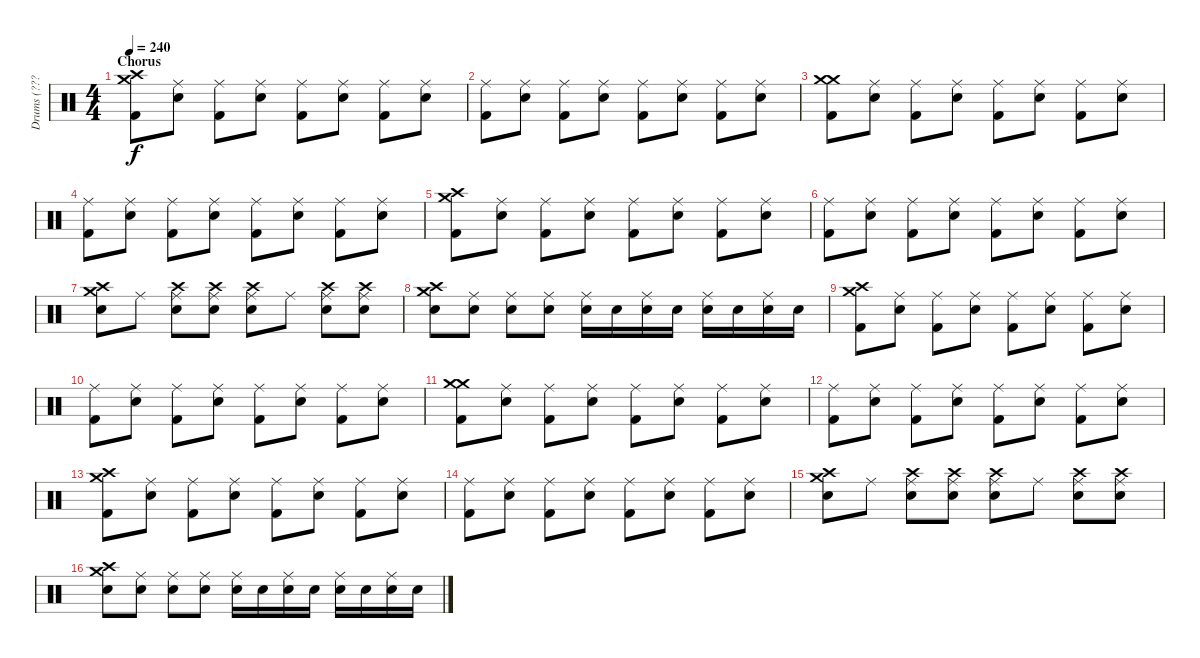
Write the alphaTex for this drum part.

\track ("Drums (????)" "Drums (???") {instrument percussion}
\staff {score}
\articulation defaults
\ts (4 4)
\section ("" "Chorus")
\tempo 240
\clef neutral
\ks c
("Crash medium (hit)" "Crash high (hit)" "Kick (hit) 2").8{dy f} ("Ride (middle)" "Snare (hit) 2").8 ("Ride (middle)" "Kick (hit) 2").8 ("Ride (middle)" "Snare (hit) 2").8 ("Ride (middle)" "Kick (hit) 2").8 ("Ride (middle)" "Snare (hit) 2").8 ("Ride (middle)" "Kick (hit) 2").8 ("Ride (middle)" "Snare (hit) 2").8 |
("Ride (middle)" "Kick (hit) 2").8 ("Ride (middle)" "Snare (hit) 2").8 ("Ride (middle)" "Kick (hit) 2").8 ("Ride (middle)" "Snare (hit) 2").8 ("Ride (middle)" "Kick (hit) 2").8 ("Ride (middle)" "Snare (hit) 2").8 ("Ride (middle)" "Kick (hit) 2").8 ("Ride (middle)" "Snare (hit) 2").8 |
("Crash medium (hit)" "Crash medium (hit)" "Kick (hit) 2").8 ("Ride (middle)" "Snare (hit) 2").8 ("Ride (middle)" "Kick (hit) 2").8 ("Ride (middle)" "Snare (hit) 2").8 ("Ride (middle)" "Kick (hit) 2").8 ("Ride (middle)" "Snare (hit) 2").8 ("Ride (middle)" "Kick (hit) 2").8 ("Ride (middle)" "Snare (hit) 2").8 |
("Ride (middle)" "Kick (hit) 2").8 ("Ride (middle)" "Snare (hit) 2").8 ("Ride (middle)" "Kick (hit) 2").8 ("Ride (middle)" "Snare (hit) 2").8 ("Ride (middle)" "Kick (hit) 2").8 ("Ride (middle)" "Snare (hit) 2").8 ("Ride (middle)" "Kick (hit) 2").8 ("Ride (middle)" "Snare (hit) 2").8 |
("Crash medium (hit)" "Crash high (hit)" "Kick (hit) 2").8 ("Ride (middle)" "Snare (hit) 2").8 ("Ride (middle)" "Kick (hit) 2").8 ("Ride (middle)" "Snare (hit) 2").8 ("Ride (middle)" "Kick (hit) 2").8 ("Ride (middle)" "Snare (hit) 2").8 ("Ride (middle)" "Kick (hit) 2").8 ("Ride (middle)" "Snare (hit) 2").8 |
("Ride (middle)" "Kick (hit) 2").8 ("Ride (middle)" "Snare (hit) 2").8 ("Ride (middle)" "Kick (hit) 2").8 ("Ride (middle)" "Snare (hit) 2").8 ("Ride (middle)" "Kick (hit) 2").8 ("Ride (middle)" "Snare (hit) 2").8 ("Ride (middle)" "Kick (hit) 2").8 ("Ride (middle)" "Snare (hit) 2").8 |
("Crash medium (hit)" "Crash high (hit)" "Snare (hit) 2").8 "Ride (middle)".8 ("Ride (middle)" "Crash high (hit)" "Snare (hit) 2").8 ("Ride (middle)" "Crash high (hit)" "Snare (hit) 2").8 ("Ride (middle)" "Crash high (hit)" "Snare (hit) 2").8 "Ride (middle)".8 ("Ride (middle)" "Crash high (hit)" "Snare (hit) 2").8 ("Ride (middle)" "Crash high (hit)" "Snare (hit) 2").8 |
("Crash medium (hit)" "Crash high (hit)" "Snare (hit) 2").8 ("Ride (middle)" "Snare (hit) 2").8 ("Ride (middle)" "Snare (hit) 2").8 ("Ride (middle)" "Snare (hit) 2").8 ("Ride (middle)" "Snare (hit) 2").16 "Snare (hit) 2".16 ("Ride (middle)" "Snare (hit) 2").16 "Snare (hit) 2".16 ("Ride (middle)" "Snare (hit) 2").16 "Snare (hit) 2".16 ("Ride (middle)" "Snare (hit) 2").16 "Snare (hit) 2".16 |
("Crash medium (hit)" "Crash high (hit)" "Kick (hit) 2").8 ("Ride (middle)" "Snare (hit) 2").8 ("Ride (middle)" "Kick (hit) 2").8 ("Ride (middle)" "Snare (hit) 2").8 ("Ride (middle)" "Kick (hit) 2").8 ("Ride (middle)" "Snare (hit) 2").8 ("Ride (middle)" "Kick (hit) 2").8 ("Ride (middle)" "Snare (hit) 2").8 |
("Ride (middle)" "Kick (hit) 2").8 ("Ride (middle)" "Snare (hit) 2").8 ("Ride (middle)" "Kick (hit) 2").8 ("Ride (middle)" "Snare (hit) 2").8 ("Ride (middle)" "Kick (hit) 2").8 ("Ride (middle)" "Snare (hit) 2").8 ("Ride (middle)" "Kick (hit) 2").8 ("Ride (middle)" "Snare (hit) 2").8 |
("Crash medium (hit)" "Crash medium (hit)" "Kick (hit) 2").8 ("Ride (middle)" "Snare (hit) 2").8 ("Ride (middle)" "Kick (hit) 2").8 ("Ride (middle)" "Snare (hit) 2").8 ("Ride (middle)" "Kick (hit) 2").8 ("Ride (middle)" "Snare (hit) 2").8 ("Ride (middle)" "Kick (hit) 2").8 ("Ride (middle)" "Snare (hit) 2").8 |
("Ride (middle)" "Kick (hit) 2").8 ("Ride (middle)" "Snare (hit) 2").8 ("Ride (middle)" "Kick (hit) 2").8 ("Ride (middle)" "Snare (hit) 2").8 ("Ride (middle)" "Kick (hit) 2").8 ("Ride (middle)" "Snare (hit) 2").8 ("Ride (middle)" "Kick (hit) 2").8 ("Ride (middle)" "Snare (hit) 2").8 |
("Crash medium (hit)" "Crash high (hit)" "Kick (hit) 2").8 ("Ride (middle)" "Snare (hit) 2").8 ("Ride (middle)" "Kick (hit) 2").8 ("Ride (middle)" "Snare (hit) 2").8 ("Ride (middle)" "Kick (hit) 2").8 ("Ride (middle)" "Snare (hit) 2").8 ("Ride (middle)" "Kick (hit) 2").8 ("Ride (middle)" "Snare (hit) 2").8 |
("Ride (middle)" "Kick (hit) 2").8 ("Ride (middle)" "Snare (hit) 2").8 ("Ride (middle)" "Kick (hit) 2").8 ("Ride (middle)" "Snare (hit) 2").8 ("Ride (middle)" "Kick (hit) 2").8 ("Ride (middle)" "Snare (hit) 2").8 ("Ride (middle)" "Kick (hit) 2").8 ("Ride (middle)" "Snare (hit) 2").8 |
("Crash medium (hit)" "Crash high (hit)" "Snare (hit) 2").8 "Ride (middle)".8 ("Ride (middle)" "Crash high (hit)" "Snare (hit) 2").8 ("Ride (middle)" "Crash high (hit)" "Snare (hit) 2").8 ("Ride (middle)" "Crash high (hit)" "Snare (hit) 2").8 "Ride (middle)".8 ("Ride (middle)" "Crash high (hit)" "Snare (hit) 2").8 ("Ride (middle)" "Crash high (hit)" "Snare (hit) 2").8 |
("Crash medium (hit)" "Crash high (hit)" "Snare (hit) 2").8 ("Ride (middle)" "Snare (hit) 2").8 ("Ride (middle)" "Snare (hit) 2").8 ("Ride (middle)" "Snare (hit) 2").8 ("Ride (middle)" "Snare (hit) 2").16 "Snare (hit) 2".16 ("Ride (middle)" "Snare (hit) 2").16 "Snare (hit) 2".16 ("Ride (middle)" "Snare (hit) 2").16 "Snare (hit) 2".16 ("Ride (middle)" "Snare (hit) 2").16 "Snare (hit) 2".16
